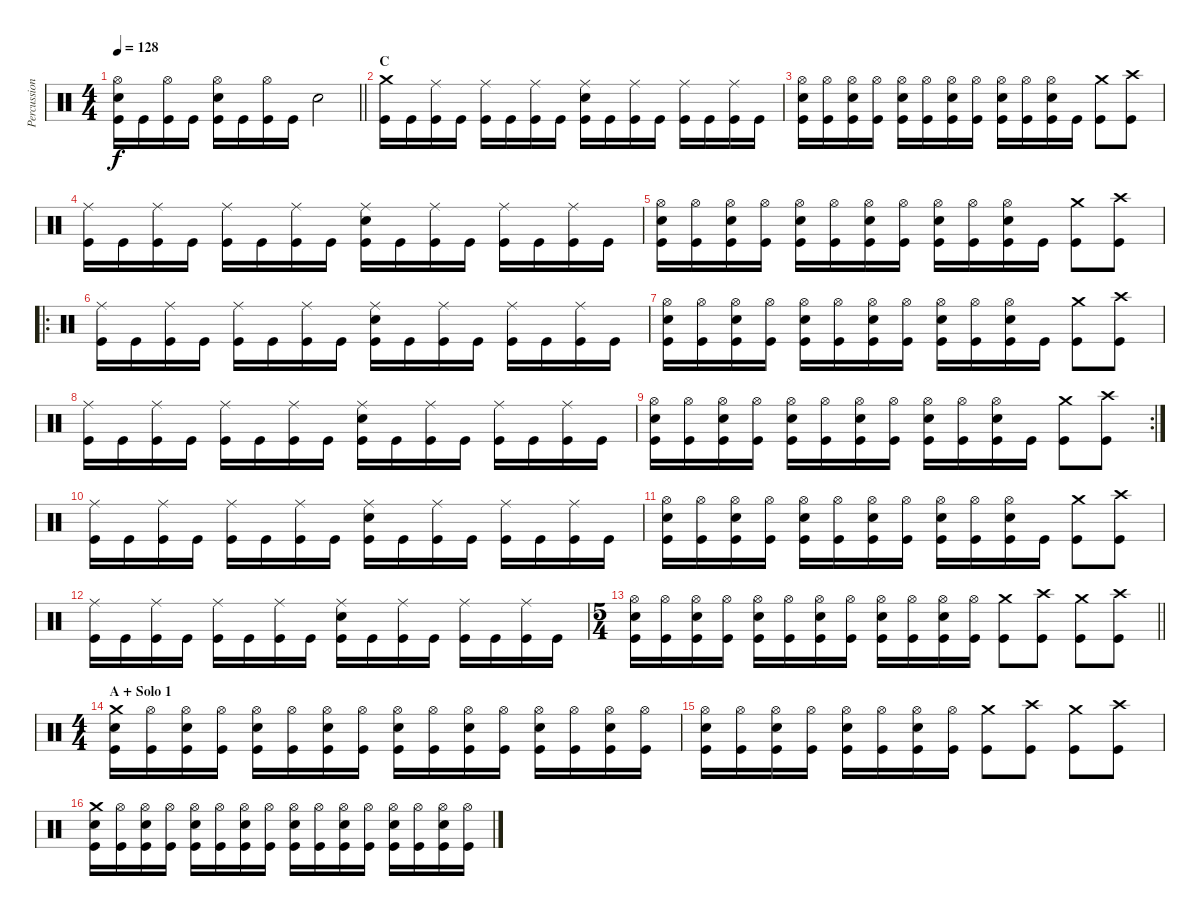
\track ("Percussion" "Percussion") {instrument percussion}
\staff {score}
\articulation defaults
\ts (4 4)
\tempo 128
\clef neutral
\barLineRight lightlight
\ks c
("Kick (hit)" "Snare (hit) 2" "Hi-Hat (open)").16{dy f} "Kick (hit)".16 ("Kick (hit)" "Hi-Hat (open)").16 "Kick (hit)".16 ("Kick (hit)" "Snare (hit) 2" "Hi-Hat (open)").16 "Kick (hit)".16 ("Kick (hit)" "Hi-Hat (open)").16 "Kick (hit)".16 "Snare (hit) 2".2 |
\section ("" "C")
("Kick (hit)" "Crash medium (hit)").16 "Kick (hit)".16 ("Kick (hit)" "Ride (middle)").16 "Kick (hit)".16 ("Kick (hit)" "Ride (middle)").16 "Kick (hit)".16 ("Kick (hit)" "Ride (middle)").16 "Kick (hit)".16 ("Kick (hit)" "Snare (hit) 2" "Ride (middle)").16 "Kick (hit)".16 ("Kick (hit)" "Ride (middle)").16 "Kick (hit)".16 ("Kick (hit)" "Ride (middle)").16 "Kick (hit)".16 ("Kick (hit)" "Ride (middle)").16 "Kick (hit)".16 |
("Kick (hit)" "Snare (hit) 2" "Hi-Hat (open)").16 ("Kick (hit)" "Hi-Hat (open)").16 ("Kick (hit)" "Snare (hit) 2" "Hi-Hat (open)").16 ("Kick (hit)" "Hi-Hat (open)").16 ("Kick (hit)" "Snare (hit) 2" "Hi-Hat (open)").16 ("Kick (hit)" "Hi-Hat (open)").16 ("Kick (hit)" "Snare (hit) 2" "Hi-Hat (open)").16 ("Kick (hit)" "Hi-Hat (open)").16 ("Kick (hit)" "Snare (hit) 2" "Hi-Hat (open)").16 ("Kick (hit)" "Hi-Hat (open)").16 ("Kick (hit)" "Snare (hit) 2" "Hi-Hat (open)").16 "Kick (hit)".16 ("Kick (hit)" "Crash medium (hit)").8 ("Kick (hit)" "Crash high (hit)").8 |
("Kick (hit)" "Ride (middle)").16 "Kick (hit)".16 ("Kick (hit)" "Ride (middle)").16 "Kick (hit)".16 ("Kick (hit)" "Ride (middle)").16 "Kick (hit)".16 ("Kick (hit)" "Ride (middle)").16 "Kick (hit)".16 ("Kick (hit)" "Snare (hit) 2" "Ride (middle)").16 "Kick (hit)".16 ("Kick (hit)" "Ride (middle)").16 "Kick (hit)".16 ("Kick (hit)" "Ride (middle)").16 "Kick (hit)".16 ("Kick (hit)" "Ride (middle)").16 "Kick (hit)".16 |
("Kick (hit)" "Snare (hit) 2" "Hi-Hat (open)").16 ("Kick (hit)" "Hi-Hat (open)").16 ("Kick (hit)" "Snare (hit) 2" "Hi-Hat (open)").16 ("Kick (hit)" "Hi-Hat (open)").16 ("Kick (hit)" "Snare (hit) 2" "Hi-Hat (open)").16 ("Kick (hit)" "Hi-Hat (open)").16 ("Kick (hit)" "Snare (hit) 2" "Hi-Hat (open)").16 ("Kick (hit)" "Hi-Hat (open)").16 ("Kick (hit)" "Snare (hit) 2" "Hi-Hat (open)").16 ("Kick (hit)" "Hi-Hat (open)").16 ("Kick (hit)" "Snare (hit) 2" "Hi-Hat (open)").16 "Kick (hit)".16 ("Kick (hit)" "Crash medium (hit)").8 ("Kick (hit)" "Crash high (hit)").8 |
\ro
("Kick (hit)" "Ride (middle)").16 "Kick (hit)".16 ("Kick (hit)" "Ride (middle)").16 "Kick (hit)".16 ("Kick (hit)" "Ride (middle)").16 "Kick (hit)".16 ("Kick (hit)" "Ride (middle)").16 "Kick (hit)".16 ("Kick (hit)" "Snare (hit) 2" "Ride (middle)").16 "Kick (hit)".16 ("Kick (hit)" "Ride (middle)").16 "Kick (hit)".16 ("Kick (hit)" "Ride (middle)").16 "Kick (hit)".16 ("Kick (hit)" "Ride (middle)").16 "Kick (hit)".16 |
("Kick (hit)" "Snare (hit) 2" "Hi-Hat (open)").16 ("Kick (hit)" "Hi-Hat (open)").16 ("Kick (hit)" "Snare (hit) 2" "Hi-Hat (open)").16 ("Kick (hit)" "Hi-Hat (open)").16 ("Kick (hit)" "Snare (hit) 2" "Hi-Hat (open)").16 ("Kick (hit)" "Hi-Hat (open)").16 ("Kick (hit)" "Snare (hit) 2" "Hi-Hat (open)").16 ("Kick (hit)" "Hi-Hat (open)").16 ("Kick (hit)" "Snare (hit) 2" "Hi-Hat (open)").16 ("Kick (hit)" "Hi-Hat (open)").16 ("Kick (hit)" "Snare (hit) 2" "Hi-Hat (open)").16 "Kick (hit)".16 ("Kick (hit)" "Crash medium (hit)").8 ("Kick (hit)" "Crash high (hit)").8 |
("Kick (hit)" "Ride (middle)").16 "Kick (hit)".16 ("Kick (hit)" "Ride (middle)").16 "Kick (hit)".16 ("Kick (hit)" "Ride (middle)").16 "Kick (hit)".16 ("Kick (hit)" "Ride (middle)").16 "Kick (hit)".16 ("Kick (hit)" "Snare (hit) 2" "Ride (middle)").16 "Kick (hit)".16 ("Kick (hit)" "Ride (middle)").16 "Kick (hit)".16 ("Kick (hit)" "Ride (middle)").16 "Kick (hit)".16 ("Kick (hit)" "Ride (middle)").16 "Kick (hit)".16 |
\rc 2
("Kick (hit)" "Snare (hit) 2" "Hi-Hat (open)").16 ("Kick (hit)" "Hi-Hat (open)").16 ("Kick (hit)" "Snare (hit) 2" "Hi-Hat (open)").16 ("Kick (hit)" "Hi-Hat (open)").16 ("Kick (hit)" "Snare (hit) 2" "Hi-Hat (open)").16 ("Kick (hit)" "Hi-Hat (open)").16 ("Kick (hit)" "Snare (hit) 2" "Hi-Hat (open)").16 ("Kick (hit)" "Hi-Hat (open)").16 ("Kick (hit)" "Snare (hit) 2" "Hi-Hat (open)").16 ("Kick (hit)" "Hi-Hat (open)").16 ("Kick (hit)" "Snare (hit) 2" "Hi-Hat (open)").16 "Kick (hit)".16 ("Kick (hit)" "Crash medium (hit)").8 ("Kick (hit)" "Crash high (hit)").8 |
("Kick (hit)" "Ride (middle)").16 "Kick (hit)".16 ("Kick (hit)" "Ride (middle)").16 "Kick (hit)".16 ("Kick (hit)" "Ride (middle)").16 "Kick (hit)".16 ("Kick (hit)" "Ride (middle)").16 "Kick (hit)".16 ("Kick (hit)" "Snare (hit) 2" "Ride (middle)").16 "Kick (hit)".16 ("Kick (hit)" "Ride (middle)").16 "Kick (hit)".16 ("Kick (hit)" "Ride (middle)").16 "Kick (hit)".16 ("Kick (hit)" "Ride (middle)").16 "Kick (hit)".16 |
("Kick (hit)" "Snare (hit) 2" "Hi-Hat (open)").16 ("Kick (hit)" "Hi-Hat (open)").16 ("Kick (hit)" "Snare (hit) 2" "Hi-Hat (open)").16 ("Kick (hit)" "Hi-Hat (open)").16 ("Kick (hit)" "Snare (hit) 2" "Hi-Hat (open)").16 ("Kick (hit)" "Hi-Hat (open)").16 ("Kick (hit)" "Snare (hit) 2" "Hi-Hat (open)").16 ("Kick (hit)" "Hi-Hat (open)").16 ("Kick (hit)" "Snare (hit) 2" "Hi-Hat (open)").16 ("Kick (hit)" "Hi-Hat (open)").16 ("Kick (hit)" "Snare (hit) 2" "Hi-Hat (open)").16 "Kick (hit)".16 ("Kick (hit)" "Crash medium (hit)").8 ("Kick (hit)" "Crash high (hit)").8 |
("Kick (hit)" "Ride (middle)").16 "Kick (hit)".16 ("Kick (hit)" "Ride (middle)").16 "Kick (hit)".16 ("Kick (hit)" "Ride (middle)").16 "Kick (hit)".16 ("Kick (hit)" "Ride (middle)").16 "Kick (hit)".16 ("Kick (hit)" "Snare (hit) 2" "Ride (middle)").16 "Kick (hit)".16 ("Kick (hit)" "Ride (middle)").16 "Kick (hit)".16 ("Kick (hit)" "Ride (middle)").16 "Kick (hit)".16 ("Kick (hit)" "Ride (middle)").16 "Kick (hit)".16 |
\ts (5 4)
\barLineRight lightlight
("Kick (hit)" "Snare (hit) 2" "Hi-Hat (open)").16 ("Kick (hit)" "Hi-Hat (open)").16 ("Kick (hit)" "Snare (hit) 2" "Hi-Hat (open)").16 ("Kick (hit)" "Hi-Hat (open)").16 ("Kick (hit)" "Snare (hit) 2" "Hi-Hat (open)").16 ("Kick (hit)" "Hi-Hat (open)").16 ("Kick (hit)" "Snare (hit) 2" "Hi-Hat (open)").16 ("Kick (hit)" "Hi-Hat (open)").16 ("Kick (hit)" "Snare (hit) 2" "Hi-Hat (open)").16 ("Kick (hit)" "Hi-Hat (open)").16 ("Kick (hit)" "Snare (hit) 2" "Hi-Hat (open)").16 ("Kick (hit)" "Hi-Hat (open)").16 ("Kick (hit)" "Crash medium (hit)").8 ("Kick (hit)" "Crash high (hit)").8 ("Kick (hit)" "Crash medium (hit)").8 ("Kick (hit)" "Crash high (hit)").8 |
\ts (4 4)
\section ("" "A + Solo 1")
("Kick (hit)" "Snare (hit) 2" "Crash medium (hit)").16 ("Kick (hit)" "Hi-Hat (open)").16 ("Kick (hit)" "Snare (hit) 2" "Hi-Hat (open)").16 ("Kick (hit)" "Hi-Hat (open)").16 ("Kick (hit)" "Snare (hit) 2" "Hi-Hat (open)").16 ("Kick (hit)" "Hi-Hat (open)").16 ("Kick (hit)" "Snare (hit) 2" "Hi-Hat (open)").16 ("Kick (hit)" "Hi-Hat (open)").16 ("Kick (hit)" "Snare (hit) 2" "Hi-Hat (open)").16 ("Kick (hit)" "Hi-Hat (open)").16 ("Kick (hit)" "Snare (hit) 2" "Hi-Hat (open)").16 ("Kick (hit)" "Hi-Hat (open)").16 ("Kick (hit)" "Snare (hit) 2" "Hi-Hat (open)").16 ("Kick (hit)" "Hi-Hat (open)").16 ("Kick (hit)" "Snare (hit) 2" "Hi-Hat (open)").16 ("Kick (hit)" "Hi-Hat (open)").16 |
("Kick (hit)" "Snare (hit) 2" "Hi-Hat (open)").16 ("Kick (hit)" "Hi-Hat (open)").16 ("Kick (hit)" "Snare (hit) 2" "Hi-Hat (open)").16 ("Kick (hit)" "Hi-Hat (open)").16 ("Kick (hit)" "Snare (hit) 2" "Hi-Hat (open)").16 ("Kick (hit)" "Hi-Hat (open)").16 ("Kick (hit)" "Snare (hit) 2" "Hi-Hat (open)").16 ("Kick (hit)" "Hi-Hat (open)").16 ("Kick (hit)" "Crash medium (hit)").8 ("Kick (hit)" "Crash high (hit)").8 ("Kick (hit)" "Crash medium (hit)").8 ("Kick (hit)" "Crash high (hit)").8 |
("Kick (hit)" "Snare (hit) 2" "Crash medium (hit)").16 ("Kick (hit)" "Hi-Hat (open)").16 ("Kick (hit)" "Snare (hit) 2" "Hi-Hat (open)").16 ("Kick (hit)" "Hi-Hat (open)").16 ("Kick (hit)" "Snare (hit) 2" "Hi-Hat (open)").16 ("Kick (hit)" "Hi-Hat (open)").16 ("Kick (hit)" "Snare (hit) 2" "Hi-Hat (open)").16 ("Kick (hit)" "Hi-Hat (open)").16 ("Kick (hit)" "Snare (hit) 2" "Hi-Hat (open)").16 ("Kick (hit)" "Hi-Hat (open)").16 ("Kick (hit)" "Snare (hit) 2" "Hi-Hat (open)").16 ("Kick (hit)" "Hi-Hat (open)").16 ("Kick (hit)" "Snare (hit) 2" "Hi-Hat (open)").16 ("Kick (hit)" "Hi-Hat (open)").16 ("Kick (hit)" "Snare (hit) 2" "Hi-Hat (open)").16 ("Kick (hit)" "Hi-Hat (open)").16
